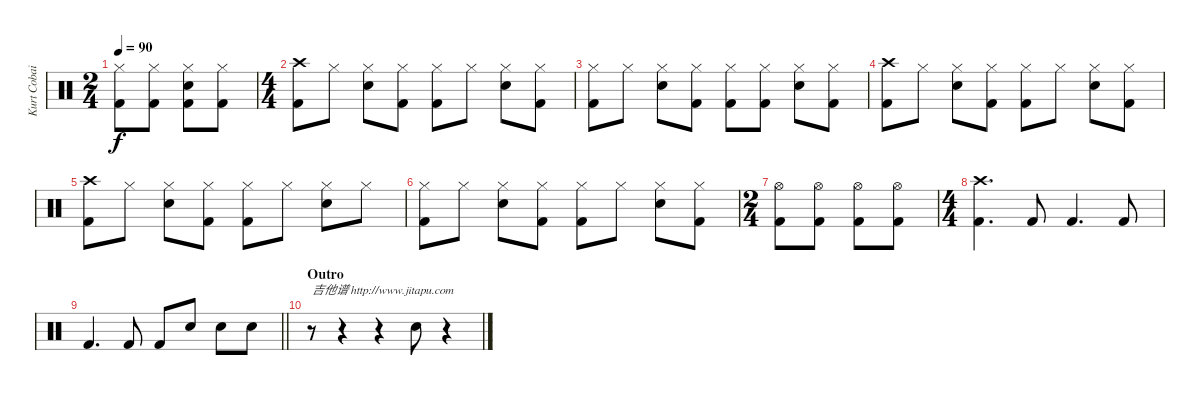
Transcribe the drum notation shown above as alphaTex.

\track ("Kurt Cobain" "Kurt Cobai") {instrument percussion}
\staff {score}
\articulation defaults
\ts (2 4)
\tempo 90
\clef neutral
\ks c
("Hi-Hat (closed)" "Kick (hit) 2").8{dy f} ("Hi-Hat (closed)" "Kick (hit) 2").8 ("Hi-Hat (closed)" "Snare (hit) 2" "Kick (hit) 2").8 ("Hi-Hat (closed)" "Kick (hit) 2").8 |
\ts (4 4)
("Crash high (hit)" "Kick (hit) 2").8 "Hi-Hat (closed)".8 ("Hi-Hat (closed)" "Snare (hit) 2").8 ("Hi-Hat (closed)" "Kick (hit) 2").8 ("Hi-Hat (closed)" "Kick (hit) 2").8 "Hi-Hat (closed)".8 ("Hi-Hat (closed)" "Snare (hit) 2").8 ("Hi-Hat (closed)" "Kick (hit) 2").8 |
("Hi-Hat (closed)" "Kick (hit) 2").8 "Hi-Hat (closed)".8 ("Hi-Hat (closed)" "Snare (hit) 2").8 ("Hi-Hat (closed)" "Kick (hit) 2").8 ("Hi-Hat (closed)" "Kick (hit) 2").8 ("Hi-Hat (closed)" "Kick (hit) 2").8 ("Hi-Hat (closed)" "Snare (hit) 2").8 ("Hi-Hat (closed)" "Kick (hit) 2").8 |
("Crash high (hit)" "Kick (hit) 2").8 "Hi-Hat (closed)".8 ("Hi-Hat (closed)" "Snare (hit) 2").8 ("Hi-Hat (closed)" "Kick (hit) 2").8 ("Hi-Hat (closed)" "Kick (hit) 2").8 "Hi-Hat (closed)".8 ("Hi-Hat (closed)" "Snare (hit) 2").8 ("Hi-Hat (closed)" "Kick (hit) 2").8 |
("Crash high (hit)" "Kick (hit) 2").8 "Hi-Hat (closed)".8 ("Hi-Hat (closed)" "Snare (hit) 2").8 ("Hi-Hat (closed)" "Kick (hit) 2").8 ("Hi-Hat (closed)" "Kick (hit) 2").8 "Hi-Hat (closed)".8 ("Hi-Hat (closed)" "Snare (hit) 2").8 "Hi-Hat (closed)".8 |
("Hi-Hat (closed)" "Kick (hit) 2").8 "Hi-Hat (closed)".8 ("Hi-Hat (closed)" "Snare (hit) 2").8 ("Hi-Hat (closed)" "Kick (hit) 2").8 ("Hi-Hat (closed)" "Kick (hit) 2").8 "Hi-Hat (closed)".8 ("Hi-Hat (closed)" "Snare (hit) 2").8 ("Hi-Hat (closed)" "Kick (hit) 2").8 |
\ts (2 4)
("Hi-Hat (open)" "Kick (hit) 2").8 ("Hi-Hat (open)" "Kick (hit) 2").8 ("Hi-Hat (open)" "Kick (hit) 2").8 ("Hi-Hat (open)" "Kick (hit) 2").8 |
\ts (4 4)
("Crash high (hit)" "Kick (hit) 2").4{d} "Kick (hit) 2".8 "Kick (hit) 2".4{d} "Kick (hit) 2".8 |
\barLineRight lightlight "Kick (hit) 2".4{d} "Kick (hit) 2".8 "Kick (hit) 2".8 "Snare (hit) 2".8 "Snare (hit) 2".8 "Snare (hit) 2".8
|
\section ("" "Outro")
r.8{txt "吉他谱 http://www.jitapu.com"} r.4 r.4 "Snare (hit) 2".8 r.4
